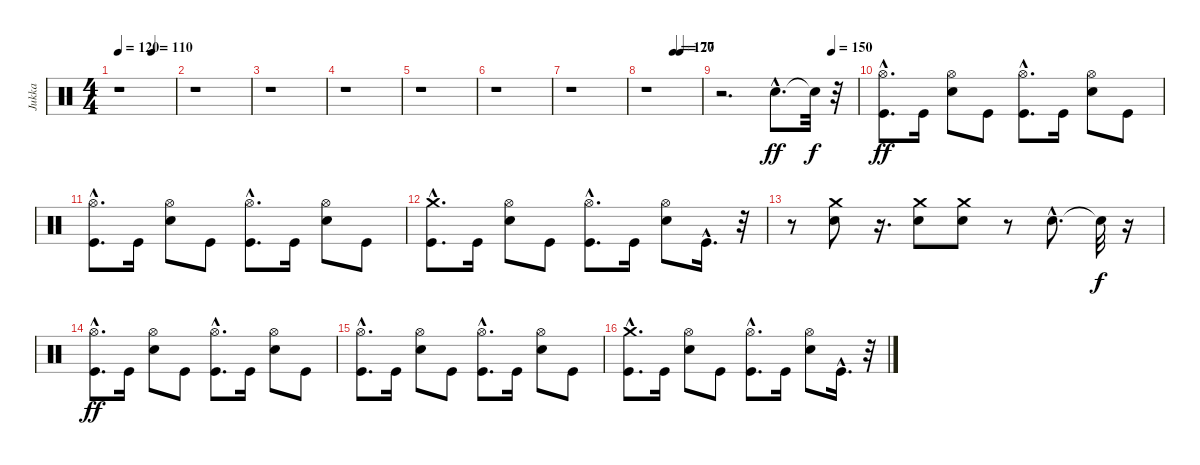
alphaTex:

\track ("Jukka" "Jukka") {instrument percussion}
\staff {score}
\articulation defaults
\ts (4 4)
\tempo 120
\tempo (110 0.59375)
\tempo 120
\clef neutral
\ks c
r.1{dy ff} |
r.1 |
r.1 |
r.1 |
r.1 |
r.1 |
r.1 |
\tempo (120 0.5)
\tempo (77 0.625)
r.1 |
\tempo (150 0.8125)
r.2{d} "Electric Snare (hit)"{hac}.8{d} "Snare (hit)"{t}.32{dy f} r.32 |
("Kick (hit)"{hac} "Hi-Hat (open)"{hac}).8{d dy ff} "Kick (hit)".16 ("Electric Snare (hit)" "Hi-Hat (open)").8 "Kick (hit)".8 ("Kick (hit)"{hac} "Hi-Hat (open)"{hac}).8{d} "Kick (hit)".16 ("Electric Snare (hit)" "Hi-Hat (open)").8 "Kick (hit)".8 |
("Kick (hit)"{hac} "Hi-Hat (open)"{hac}).8{d} "Kick (hit)".16 ("Electric Snare (hit)" "Hi-Hat (open)").8 "Kick (hit)".8 ("Kick (hit)"{hac} "Hi-Hat (open)"{hac}).8{d} "Kick (hit)".16 ("Electric Snare (hit)" "Hi-Hat (open)").8 "Kick (hit)".8 |
("Kick (hit)"{hac} "Crash medium (hit)"{hac}).8{d} "Kick (hit)".16 ("Electric Snare (hit)" "Hi-Hat (open)").8 "Kick (hit)".8 ("Kick (hit)"{hac} "Hi-Hat (open)"{hac}).8{d} "Kick (hit)".16 ("Electric Snare (hit)" "Hi-Hat (open)").8 "Kick (hit)"{hac}.16{d} r.32 |
r.8 ("Electric Snare (hit)" "Crash medium (hit)").8 r.16{d} ("Electric Snare (hit)" "Crash medium (hit)").8 ("Electric Snare (hit)" "Crash medium (hit)").8 r.8 "Electric Snare (hit)"{hac}.8{d} "Snare (hit)"{t}.32{dy f} r.16 |
("Kick (hit)"{hac} "Hi-Hat (open)"{hac}).8{d dy ff} "Kick (hit)".16 ("Electric Snare (hit)" "Hi-Hat (open)").8 "Kick (hit)".8 ("Kick (hit)"{hac} "Hi-Hat (open)"{hac}).8{d} "Kick (hit)".16 ("Electric Snare (hit)" "Hi-Hat (open)").8 "Kick (hit)".8 |
("Kick (hit)"{hac} "Hi-Hat (open)"{hac}).8{d} "Kick (hit)".16 ("Electric Snare (hit)" "Hi-Hat (open)").8 "Kick (hit)".8 ("Kick (hit)"{hac} "Hi-Hat (open)"{hac}).8{d} "Kick (hit)".16 ("Electric Snare (hit)" "Hi-Hat (open)").8 "Kick (hit)".8 |
("Kick (hit)"{hac} "Crash medium (hit)"{hac}).8{d} "Kick (hit)".16 ("Electric Snare (hit)" "Hi-Hat (open)").8 "Kick (hit)".8 ("Kick (hit)"{hac} "Hi-Hat (open)"{hac}).8{d} "Kick (hit)".16 ("Electric Snare (hit)" "Hi-Hat (open)").8 "Kick (hit)"{hac}.16{d} r.32
